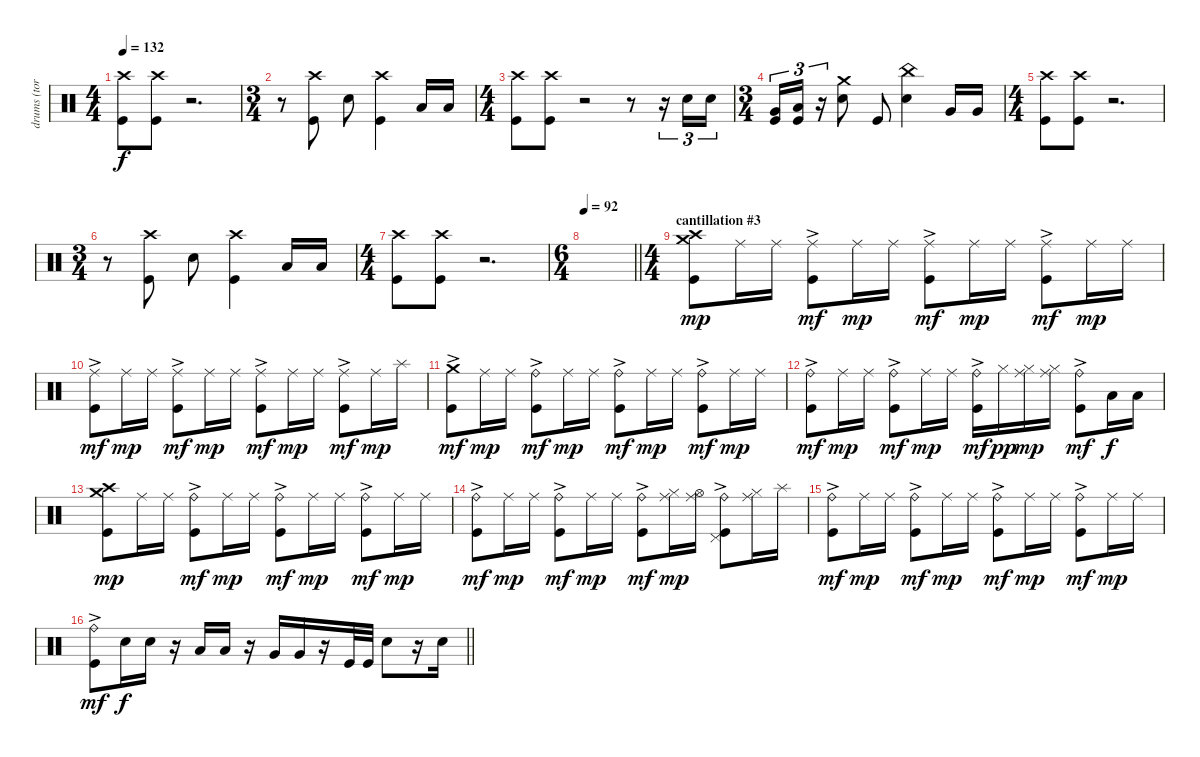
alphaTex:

\track ("drums (tora)" "drums (tor") {instrument percussion}
\staff {score}
\articulation defaults
\ts (4 4)
\section ("" "")
\tempo 132
\clef neutral
\ks c
("Crash high (hit)" "Kick (hit)").8{dy f} ("Crash high (hit)" "Kick (hit)").8 r.2{d} |
\ts (3 4)
r.8 ("Crash high (hit)" "Kick (hit)").8 "Snare (hit) 2".8 ("Crash high (hit)" "Kick (hit)").4 "Low Tom (hit)".16 "Low Tom (hit)".16 |
\ts (4 4)
("Crash high (hit)" "Kick (hit)").8 ("Crash high (hit)" "Kick (hit)").8 r.2 r.8 r.16{tu (3 2)} "Snare (hit) 2".16{tu (3 2)} "Snare (hit) 2".16{tu (3 2)} |
\ts (3 4)
("Very Low Tom (hit)" "Kick (hit)").16{tu (3 2)} ("Low Floor Tom (hit)" "Kick (hit)").16{tu (3 2)} r.16{tu (3 2)} ("Crash medium (hit)" "Snare (hit) 2").8 "Kick (hit)".8 ("China (hit)" "Snare (hit) 2").4 "Very Low Tom (hit)".16 "Very Low Tom (hit)".16 |
\ts (4 4)
("Crash high (hit)" "Kick (hit)").8 ("Crash high (hit)" "Kick (hit)").8 r.2{d} |
\ts (3 4)
r.8 ("Crash high (hit)" "Kick (hit)").8 "Snare (hit) 2".8 ("Crash high (hit)" "Kick (hit)").4 "Low Floor Tom (hit)".16 "Low Floor Tom (hit)".16 |
\ts (4 4)
("Crash high (hit)" "Kick (hit)").8 ("Crash high (hit)" "Kick (hit)").8 r.2{d} |
\ts (6 4)
\tempo 92
\barLineRight lightlight
|
\ts (4 4)
\section ("" "cantillation #3")
("Crash high (hit)" "Crash medium (hit)" "Kick (hit)").8{dy mp} "Ride (middle)".16 "Ride (middle)".16 ("Ride (middle)"{ac} "Kick (hit)").8{dy mf} "Ride (middle)".16{dy mp} "Ride (middle)".16 ("Ride (middle)"{ac} "Kick (hit)").8{dy mf} "Ride (middle)".16{dy mp} "Ride (middle)".16 ("Ride (middle)"{ac} "Kick (hit)").8{dy mf} "Ride (middle)".16{dy mp} "Ride (middle)".16 |
("Ride (middle)"{ac} "Kick (hit)").8{dy mf} "Ride (middle)".16{dy mp} "Ride (middle)".16 ("Ride (middle)"{ac} "Kick (hit)").8{dy mf} "Ride (middle)".16{dy mp} "Ride (middle)".16 ("Ride (middle)"{ac} "Kick (hit)").8{dy mf} "Ride (middle)".16{dy mp} "Ride (middle)".16 ("Ride (middle)"{ac} "Kick (hit)").8{dy mf} "Ride (middle)".16{dy mp} "Splash (hit)".16 |
("Crash medium (hit)"{ac} "Kick (hit)").8{dy mf} "Ride (middle)".16{dy mp} "Ride (middle)".16 ("Ride (bell)"{ac} "Kick (hit)").8{dy mf} "Ride (middle)".16{dy mp} "Ride (middle)".16 ("Ride (bell)"{ac} "Kick (hit)").8{dy mf} "Ride (middle)".16{dy mp} "Ride (middle)".16 ("Ride (bell)"{ac} "Kick (hit)").8{dy mf} "Ride (middle)".16{dy mp} "Ride (middle)".16 |
("Ride (bell)"{ac} "Kick (hit)").8{dy mf} "Ride (middle)".16{dy mp} "Ride (middle)".16 ("Ride (bell)"{ac} "Kick (hit)").8{dy mf} "Ride (middle)".16{dy mp} "Ride (middle)".16 ("Ride (bell)"{ac} "Kick (hit)").16{dy mf} "Hi-Hat (closed)".16{dy pp} ("Hi-Hat (closed)" "Ride (middle)").16{dy mp} ("Hi-Hat (closed)" "Ride (middle)").16 ("Ride (bell)"{ac} "Kick (hit)").8{dy mf} "Low Tom (hit)".16{dy f} "Low Tom (hit)".16 |
("Crash high (hit)" "Crash medium (hit)" "Kick (hit)").8{dy mp} "Ride (middle)".16 "Ride (middle)".16 ("Ride (bell)"{ac} "Kick (hit)").8{dy mf} "Ride (middle)".16{dy mp} "Ride (middle)".16 ("Ride (bell)"{ac} "Kick (hit)").8{dy mf} "Ride (middle)".16{dy mp} "Ride (middle)".16 ("Ride (bell)"{ac} "Kick (hit)").8{dy mf} "Ride (middle)".16{dy mp} "Ride (middle)".16 |
("Ride (bell)"{ac} "Kick (hit)").8{dy mf} "Ride (middle)".16{dy mp} "Ride (middle)".16 ("Ride (bell)"{ac} "Kick (hit)").8{dy mf} "Ride (middle)".16{dy mp} "Ride (middle)".16 ("Ride (bell)"{ac} "Kick (hit)").8{dy mf} ("Hi-Hat (closed)" "Ride (middle)").16{dy mp} ("Hi-Hat (open)" "Ride (middle)").16 ("Ride (bell)"{ac} "Pedal Hi-Hat (hit)" "Kick (hit)").8 ("Hi-Hat (closed)" "Ride (middle)").16 "Splash (hit)".16 |
("Ride (bell)"{ac} "Kick (hit)").8{dy mf} "Ride (middle)".16{dy mp} "Ride (middle)".16 ("Ride (bell)"{ac} "Kick (hit)").8{dy mf} "Ride (middle)".16{dy mp} "Ride (middle)".16 ("Ride (bell)"{ac} "Kick (hit)").8{dy mf} "Ride (middle)".16{dy mp} "Ride (middle)".16 ("Ride (bell)"{ac} "Kick (hit)").8{dy mf} "Ride (middle)".16{dy mp} "Ride (middle)".16 |
\barLineRight lightlight
("Ride (bell)"{ac} "Kick (hit)").8{dy mf} "Snare (hit) 2".16{dy f} "Snare (hit) 2".16 r.16 "Low Tom (hit)".16 "Low Tom (hit)".16 r.16 "Very Low Tom (hit)".16 "Very Low Tom (hit)".16 r.16 "Kick (hit)".32 "Kick (hit)".32 "Snare (hit) 2".8 r.16 "Snare (hit) 2".16
